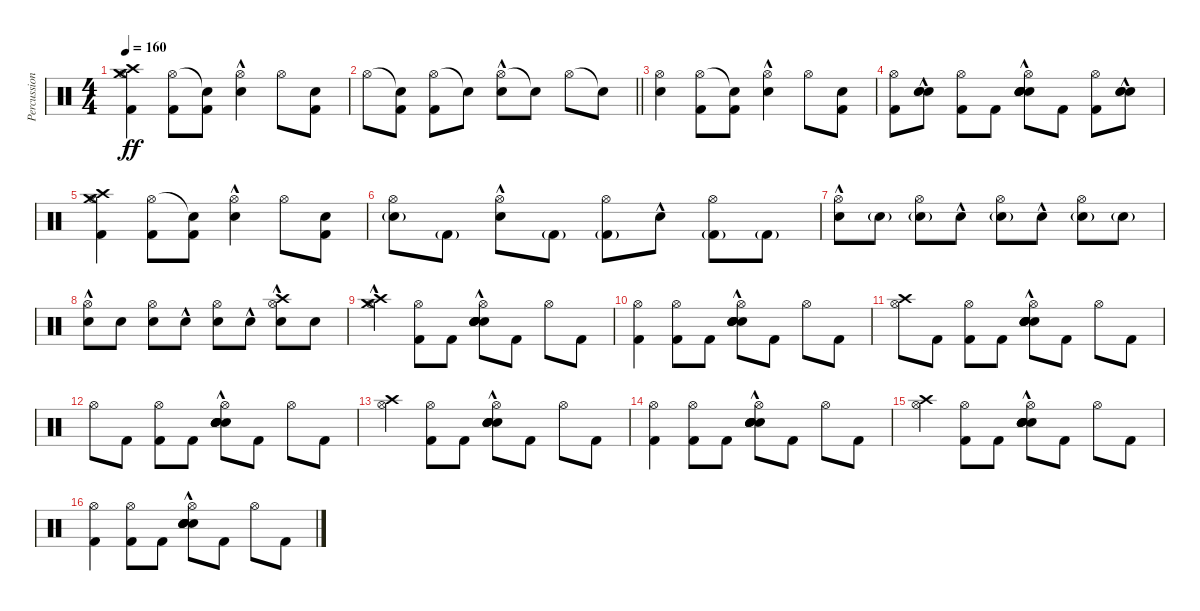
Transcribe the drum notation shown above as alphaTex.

\track ("Percussion" "Percussion") {instrument percussion}
\staff {score}
\articulation defaults
\ts (4 4)
\tempo 160
\clef neutral
\ks c
("Crash medium (hit)" "Hi-Hat (open)" "Kick (hit) 2" "Crash high (hit)").4{dy ff} ("Hi-Hat (open)" "Kick (hit) 2").8 ("Snare (hit)"{t} "Kick (hit) 2").8 ("Hi-Hat (open)"{hac} "Electric Snare (hit)"{hac}).4 "Hi-Hat (open)".8 ("Electric Snare (hit)" "Kick (hit) 2").8 |
\barLineRight lightlight "Hi-Hat (open)".8
("Snare (hit)"{t} "Kick (hit) 2").8 ("Hi-Hat (open)" "Kick (hit) 2").8 "Snare (hit)"{t}.8 ("Hi-Hat (open)"{hac} "Electric Snare (hit)"{hac}).8 "Snare (hit)"{t}.8 "Hi-Hat (open)".8 "Snare (hit)"{t}.8 |
("Hi-Hat (open)" "Electric Snare (hit)").4 ("Hi-Hat (open)" "Kick (hit) 2").8 ("Snare (hit)"{t} "Kick (hit) 2").8 ("Hi-Hat (open)"{hac} "Electric Snare (hit)"{hac}).4 "Hi-Hat (open)".8 ("Electric Snare (hit)" "Kick (hit) 2").8 |
("Hi-Hat (open)" "Kick (hit) 2").8 ("Electric Snare (hit)"{hac} "Electric Snare (hit)"{hac} "Electric Snare (hit)"{hac}).8 ("Hi-Hat (open)" "Kick (hit) 2").8 "Kick (hit) 2".8 ("Electric Snare (hit)"{hac} "Hi-Hat (open)" "Electric Snare (hit)"{hac} "Electric Snare (hit)"{hac} "Electric Snare (hit)"{hac} "Electric Snare (hit)"{hac}).8 "Kick (hit) 2".8 ("Hi-Hat (open)" "Kick (hit) 2").8 ("Electric Snare (hit)" "Electric Snare (hit)" "Electric Snare (hit)"{hac}).8 |
("Hi-Hat (open)" "Kick (hit) 2" "Crash high (hit)" "Crash medium (hit)").4 ("Hi-Hat (open)" "Kick (hit) 2").8 ("Snare (hit)"{t} "Kick (hit) 2").8 ("Hi-Hat (open)"{hac} "Electric Snare (hit)"{hac}).4 "Hi-Hat (open)".8 ("Electric Snare (hit)" "Kick (hit) 2").8 |
("Hi-Hat (open)" "Electric Snare (hit)"{g}).8 "Kick (hit) 2"{g}.8 ("Hi-Hat (open)" "Electric Snare (hit)"{hac}).8 "Kick (hit) 2"{g}.8 ("Hi-Hat (open)" "Kick (hit) 2"{g}).8 "Electric Snare (hit)"{hac}.8 ("Hi-Hat (open)" "Kick (hit) 2"{g}).8 "Kick (hit) 2"{g}.8 |
("Hi-Hat (open)" "Electric Snare (hit)"{hac}).8 "Snare (hit) 2"{g}.8 ("Hi-Hat (open)" "Snare (hit) 2"{g}).8 "Electric Snare (hit)"{hac}.8 ("Hi-Hat (open)" "Snare (hit) 2"{g}).8 "Electric Snare (hit)"{hac}.8 ("Hi-Hat (open)" "Snare (hit) 2"{g}).8 "Snare (hit) 2"{g}.8 |
("Hi-Hat (open)" "Electric Snare (hit)"{hac}).8 "Snare (hit) 2".8 ("Hi-Hat (open)" "Snare (hit) 2").8 "Electric Snare (hit)"{hac}.8 ("Hi-Hat (open)" "Snare (hit) 2").8 "Electric Snare (hit)"{hac}.8 ("Crash high (hit)" "Hi-Hat (open)" "Electric Snare (hit)"{hac}).8 "Snare (hit) 2".8 |
("Hi-Hat (open)"{hac} "Crash high (hit)"{hac} "Crash medium (hit)").4 ("Hi-Hat (open)" "Kick (hit) 2").8 "Kick (hit) 2".8 ("Hi-Hat (open)" "Electric Snare (hit)"{hac} "Electric Snare (hit)"{hac} "Electric Snare (hit)"{hac} "Electric Snare (hit)"{hac} "Electric Snare (hit)"{hac}).8 "Kick (hit) 2".8 "Hi-Hat (open)".8 "Kick (hit) 2".8 |
("Hi-Hat (open)" "Kick (hit) 2").4 ("Hi-Hat (open)" "Kick (hit) 2").8 "Kick (hit) 2".8 ("Hi-Hat (open)" "Electric Snare (hit)"{hac} "Electric Snare (hit)"{hac} "Electric Snare (hit)"{hac} "Electric Snare (hit)"{hac} "Electric Snare (hit)"{hac}).8 "Kick (hit) 2".8 "Hi-Hat (open)".8 "Kick (hit) 2".8 |
("Hi-Hat (open)" "Crash high (hit)").8 "Kick (hit) 2".8 ("Hi-Hat (open)" "Kick (hit) 2").8 "Kick (hit) 2".8 ("Hi-Hat (open)" "Electric Snare (hit)"{hac} "Electric Snare (hit)"{hac} "Electric Snare (hit)"{hac} "Electric Snare (hit)"{hac} "Electric Snare (hit)"{hac}).8 "Kick (hit) 2".8 "Hi-Hat (open)".8 "Kick (hit) 2".8 |
"Hi-Hat (open)".8 "Kick (hit) 2".8 ("Hi-Hat (open)" "Kick (hit) 2").8 "Kick (hit) 2".8 ("Hi-Hat (open)" "Electric Snare (hit)"{hac} "Electric Snare (hit)"{hac} "Electric Snare (hit)"{hac} "Electric Snare (hit)"{hac} "Electric Snare (hit)"{hac}).8 "Kick (hit) 2".8 "Hi-Hat (open)".8 "Kick (hit) 2".8 |
("Hi-Hat (open)" "Crash high (hit)").4 ("Hi-Hat (open)" "Kick (hit) 2").8 "Kick (hit) 2".8 ("Hi-Hat (open)" "Electric Snare (hit)"{hac} "Electric Snare (hit)"{hac} "Electric Snare (hit)"{hac} "Electric Snare (hit)"{hac} "Electric Snare (hit)"{hac}).8 "Kick (hit) 2".8 "Hi-Hat (open)".8 "Kick (hit) 2".8 |
("Hi-Hat (open)" "Kick (hit) 2").4 ("Hi-Hat (open)" "Kick (hit) 2").8 "Kick (hit) 2".8 ("Hi-Hat (open)" "Electric Snare (hit)"{hac} "Electric Snare (hit)"{hac} "Electric Snare (hit)"{hac} "Electric Snare (hit)"{hac} "Electric Snare (hit)"{hac}).8 "Kick (hit) 2".8 "Hi-Hat (open)".8 "Kick (hit) 2".8 |
("Hi-Hat (open)" "Crash high (hit)").4 ("Hi-Hat (open)" "Kick (hit) 2").8 "Kick (hit) 2".8 ("Hi-Hat (open)" "Electric Snare (hit)"{hac} "Electric Snare (hit)"{hac} "Electric Snare (hit)"{hac} "Electric Snare (hit)"{hac} "Electric Snare (hit)"{hac}).8 "Kick (hit) 2".8 "Hi-Hat (open)".8 "Kick (hit) 2".8 |
("Hi-Hat (open)" "Kick (hit) 2").4 ("Hi-Hat (open)" "Kick (hit) 2").8 "Kick (hit) 2".8 ("Hi-Hat (open)" "Electric Snare (hit)"{hac} "Electric Snare (hit)"{hac} "Electric Snare (hit)"{hac} "Electric Snare (hit)"{hac} "Electric Snare (hit)"{hac}).8 "Kick (hit) 2".8 "Hi-Hat (open)".8 "Kick (hit) 2".8
